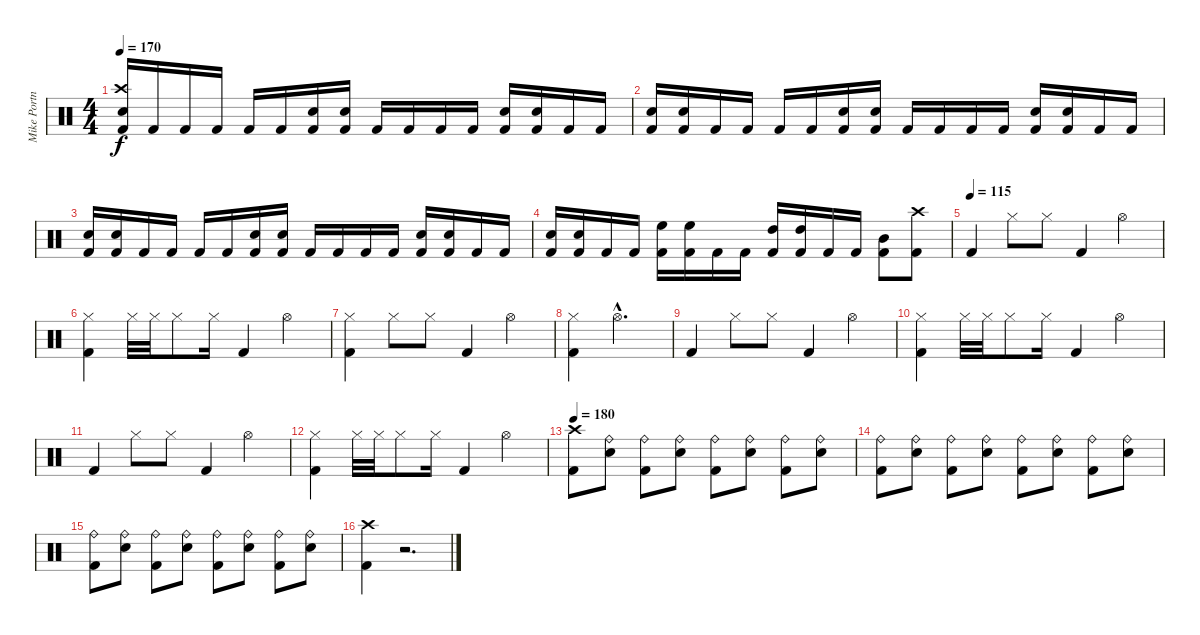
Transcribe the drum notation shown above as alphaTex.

\track ("Mike Portnoy Drums" "Mike Portn") {instrument percussion}
\staff {score}
\articulation defaults
\ts (4 4)
\tempo 170
\clef neutral
\ks c
("Kick (hit) 2" "Crash high (hit)" "Electric Snare (hit)").16{dy f} "Kick (hit) 2".16 "Kick (hit) 2".16 "Kick (hit) 2".16 "Kick (hit) 2".16 "Kick (hit) 2".16 ("Kick (hit) 2" "Electric Snare (hit)").16 ("Kick (hit) 2" "Electric Snare (hit)").16 "Kick (hit) 2".16 "Kick (hit) 2".16 "Kick (hit) 2".16 "Kick (hit) 2".16 ("Kick (hit) 2" "Electric Snare (hit)").16 ("Kick (hit) 2" "Electric Snare (hit)").16 "Kick (hit) 2".16 "Kick (hit) 2".16 |
("Kick (hit) 2" "Electric Snare (hit)").16 ("Kick (hit) 2" "Electric Snare (hit)").16 "Kick (hit) 2".16 "Kick (hit) 2".16 "Kick (hit) 2".16 "Kick (hit) 2".16 ("Kick (hit) 2" "Electric Snare (hit)").16 ("Kick (hit) 2" "Electric Snare (hit)").16 "Kick (hit) 2".16 "Kick (hit) 2".16 "Kick (hit) 2".16 "Kick (hit) 2".16 ("Kick (hit) 2" "Electric Snare (hit)").16 ("Kick (hit) 2" "Electric Snare (hit)").16 "Kick (hit) 2".16 "Kick (hit) 2".16 |
("Kick (hit) 2" "Electric Snare (hit)").16 ("Kick (hit) 2" "Electric Snare (hit)").16 "Kick (hit) 2".16 "Kick (hit) 2".16 "Kick (hit) 2".16 "Kick (hit) 2".16 ("Kick (hit) 2" "Electric Snare (hit)").16 ("Kick (hit) 2" "Electric Snare (hit)").16 "Kick (hit) 2".16 "Kick (hit) 2".16 "Kick (hit) 2".16 "Kick (hit) 2".16 ("Kick (hit) 2" "Electric Snare (hit)").16 ("Kick (hit) 2" "Electric Snare (hit)").16 "Kick (hit) 2".16 "Kick (hit) 2".16 |
("Kick (hit) 2" "Electric Snare (hit)").16 ("Kick (hit) 2" "Electric Snare (hit)").16 "Kick (hit) 2".16 "Kick (hit) 2".16 ("Kick (hit) 2" "High Floor Tom (hit)").16 ("Kick (hit) 2" "High Floor Tom (hit)").16 "Kick (hit) 2".16 "Kick (hit) 2".16 ("Kick (hit) 2" "High Tom (hit)").16 ("Kick (hit) 2" "High Tom (hit)").16 "Kick (hit) 2".16 "Kick (hit) 2".16 ("Kick (hit) 2" "Mid Tom (hit)").8 ("Kick (hit) 2" "Crash high (hit)").8 |
\tempo (115)
"Kick (hit) 2".4 "Hi-Hat (closed)"{pm}.8 "Hi-Hat (closed)"{pm}.8 "Kick (hit) 2".4 "Hi-Hat (open)".4 |
("Hi-Hat (closed)" "Kick (hit) 2").4 "Hi-Hat (closed)".32 "Hi-Hat (closed)".32 "Hi-Hat (closed)".8 "Hi-Hat (closed)".16 "Kick (hit) 2".4 "Hi-Hat (open)".4 |
("Hi-Hat (closed)" "Kick (hit) 2").4 "Hi-Hat (closed)"{pm}.8 "Hi-Hat (closed)"{pm}.8 "Kick (hit) 2".4 "Hi-Hat (open)".4 |
("Hi-Hat (closed)" "Kick (hit) 2").4 "Hi-Hat (open)"{hac}.2{d} |
"Kick (hit) 2".4 "Hi-Hat (closed)"{pm}.8 "Hi-Hat (closed)"{pm}.8 "Kick (hit) 2".4 "Hi-Hat (open)".4 |
("Hi-Hat (closed)" "Kick (hit) 2").4 "Hi-Hat (closed)".32 "Hi-Hat (closed)".32 "Hi-Hat (closed)".8 "Hi-Hat (closed)".16 "Kick (hit) 2".4 "Hi-Hat (open)".4 |
"Kick (hit) 2".4 "Hi-Hat (closed)"{pm}.8 "Hi-Hat (closed)"{pm}.8 "Kick (hit) 2".4 "Hi-Hat (open)".4 |
("Hi-Hat (closed)" "Kick (hit) 2").4 "Hi-Hat (closed)".32 "Hi-Hat (closed)".32 "Hi-Hat (closed)".8 "Hi-Hat (closed)".16 "Kick (hit) 2".4 "Hi-Hat (open)".4 |
\tempo 180
("Kick (hit) 2" "Crash high (hit)").8 ("Electric Snare (hit)" "Ride (bell)").8 ("Kick (hit) 2" "Ride (bell)").8 ("Electric Snare (hit)" "Ride (bell)").8 ("Kick (hit) 2" "Ride (bell)").8 ("Electric Snare (hit)" "Ride (bell)").8 ("Kick (hit) 2" "Ride (bell)").8 ("Electric Snare (hit)" "Ride (bell)").8 |
("Kick (hit) 2" "Ride (bell)").8 ("Electric Snare (hit)" "Ride (bell)").8 ("Kick (hit) 2" "Ride (bell)").8 ("Electric Snare (hit)" "Ride (bell)").8 ("Kick (hit) 2" "Ride (bell)").8 ("Electric Snare (hit)" "Ride (bell)").8 ("Kick (hit) 2" "Ride (bell)").8 ("Electric Snare (hit)" "Ride (bell)").8 |
("Kick (hit) 2" "Ride (bell)").8 ("Electric Snare (hit)" "Ride (bell)").8 ("Kick (hit) 2" "Ride (bell)").8 ("Electric Snare (hit)" "Ride (bell)").8 ("Kick (hit) 2" "Ride (bell)").8 ("Electric Snare (hit)" "Ride (bell)").8 ("Kick (hit) 2" "Ride (bell)").8 ("Electric Snare (hit)" "Ride (bell)").8 |
("Kick (hit) 2" "Crash high (hit)").4 r.2{d}
